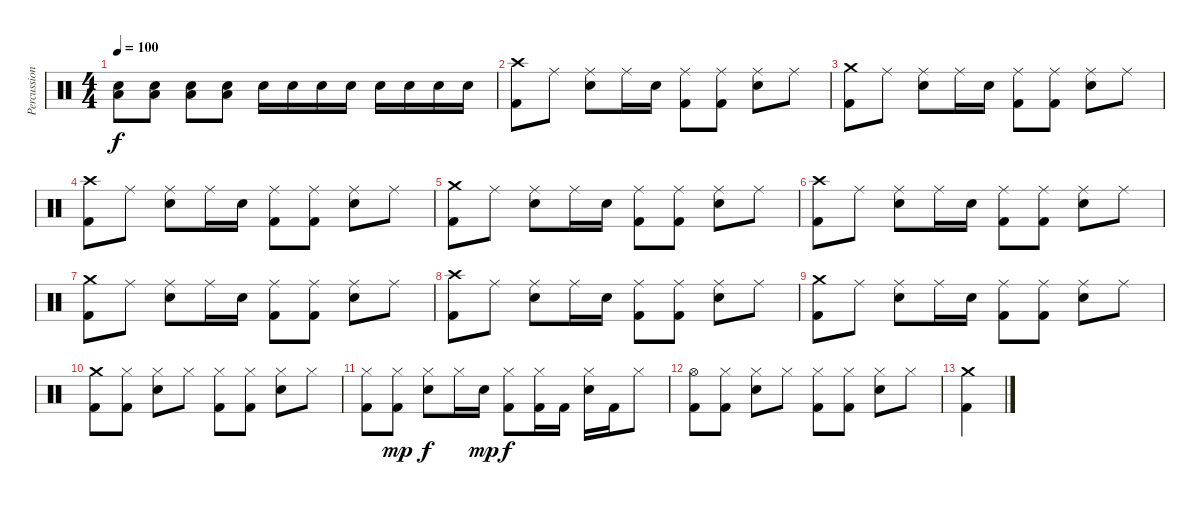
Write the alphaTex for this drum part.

\track ("Percussion" "Percussion") {instrument percussion}
\staff {score}
\articulation defaults
\ts (4 4)
\tempo 100
\clef neutral
\ks c
("Electric Snare (hit)" "Low Floor Tom (hit)").8{dy f} ("Electric Snare (hit)" "Low Floor Tom (hit)").8 ("Electric Snare (hit)" "Low Floor Tom (hit)").8 ("Electric Snare (hit)" "Low Floor Tom (hit)").8 "Electric Snare (hit)".16 "Electric Snare (hit)".16 "Electric Snare (hit)".16 "Electric Snare (hit)".16 "Electric Snare (hit)".16 "Electric Snare (hit)".16 "Electric Snare (hit)".16 "Electric Snare (hit)".16 |
("Kick (hit) 2" "Crash high (hit)").8 "Ride (middle)".8 ("Electric Snare (hit)" "Ride (middle)").8 "Ride (middle)".16 "Electric Snare (hit)".16 ("Ride (middle)" "Kick (hit) 2").8 ("Ride (middle)" "Kick (hit) 2").8 ("Electric Snare (hit)" "Ride (middle)").8 "Ride (middle)".8 |
("Kick (hit) 2" "Crash medium (hit)").8 "Ride (middle)".8 ("Electric Snare (hit)" "Ride (middle)").8 "Ride (middle)".16 "Electric Snare (hit)".16 ("Ride (middle)" "Kick (hit) 2").8 ("Ride (middle)" "Kick (hit) 2").8 ("Ride (middle)" "Electric Snare (hit)").8 "Ride (middle)".8 |
("Kick (hit) 2" "Crash high (hit)").8 "Ride (middle)".8 ("Electric Snare (hit)" "Ride (middle)").8 "Ride (middle)".16 "Electric Snare (hit)".16 ("Ride (middle)" "Kick (hit) 2").8 ("Ride (middle)" "Kick (hit) 2").8 ("Electric Snare (hit)" "Ride (middle)").8 "Ride (middle)".8 |
("Kick (hit) 2" "Crash medium (hit)").8 "Ride (middle)".8 ("Electric Snare (hit)" "Ride (middle)").8 "Ride (middle)".16 "Electric Snare (hit)".16 ("Ride (middle)" "Kick (hit) 2").8 ("Ride (middle)" "Kick (hit) 2").8 ("Ride (middle)" "Electric Snare (hit)").8 "Ride (middle)".8 |
("Kick (hit) 2" "Crash high (hit)").8 "Ride (middle)".8 ("Electric Snare (hit)" "Ride (middle)").8 "Ride (middle)".16 "Electric Snare (hit)".16 ("Ride (middle)" "Kick (hit) 2").8 ("Ride (middle)" "Kick (hit) 2").8 ("Electric Snare (hit)" "Ride (middle)").8 "Ride (middle)".8 |
("Kick (hit) 2" "Crash medium (hit)").8 "Ride (middle)".8 ("Electric Snare (hit)" "Ride (middle)").8 "Ride (middle)".16 "Electric Snare (hit)".16 ("Ride (middle)" "Kick (hit) 2").8 ("Ride (middle)" "Kick (hit) 2").8 ("Ride (middle)" "Electric Snare (hit)").8 "Ride (middle)".8 |
("Kick (hit) 2" "Crash high (hit)").8 "Ride (middle)".8 ("Electric Snare (hit)" "Ride (middle)").8 "Ride (middle)".16 "Electric Snare (hit)".16 ("Ride (middle)" "Kick (hit) 2").8 ("Ride (middle)" "Kick (hit) 2").8 ("Electric Snare (hit)" "Ride (middle)").8 "Ride (middle)".8 |
("Kick (hit) 2" "Crash medium (hit)").8 "Ride (middle)".8 ("Electric Snare (hit)" "Ride (middle)").8 "Ride (middle)".16 "Electric Snare (hit)".16 ("Ride (middle)" "Kick (hit) 2").8 ("Ride (middle)" "Kick (hit) 2").8 ("Ride (middle)" "Electric Snare (hit)").8 "Ride (middle)".8 |
("Kick (hit) 2" "Crash medium (hit)").8 ("Kick (hit) 2" "Hi-Hat (closed)").8 ("Electric Snare (hit)" "Hi-Hat (closed)").8 "Hi-Hat (closed)".8 ("Hi-Hat (closed)" "Kick (hit) 2").8 ("Hi-Hat (closed)" "Kick (hit) 2").8 ("Hi-Hat (closed)" "Electric Snare (hit)").8 "Hi-Hat (closed)".8 |
("Kick (hit) 2" "Hi-Hat (closed)").8 ("Kick (hit) 2" "Hi-Hat (closed)").8{dy mp} ("Electric Snare (hit)" "Hi-Hat (closed)").8{dy f} "Hi-Hat (closed)".16 "Electric Snare (hit)".16{dy mp} ("Hi-Hat (closed)" "Kick (hit) 2").8{dy f} ("Hi-Hat (closed)" "Kick (hit) 2").16 "Kick (hit) 2".16 ("Electric Snare (hit)" "Hi-Hat (closed)").16 "Kick (hit) 2".16 "Hi-Hat (closed)".8 |
("Kick (hit) 2" "Hi-Hat (open)").8 ("Kick (hit) 2" "Hi-Hat (closed)").8 ("Electric Snare (hit)" "Hi-Hat (closed)").8 "Hi-Hat (closed)".8 ("Hi-Hat (closed)" "Kick (hit) 2").8 ("Hi-Hat (closed)" "Kick (hit) 2").8 ("Hi-Hat (closed)" "Electric Snare (hit)").8 "Hi-Hat (closed)".8 |
("Kick (hit) 2" "Crash medium (hit)").4
